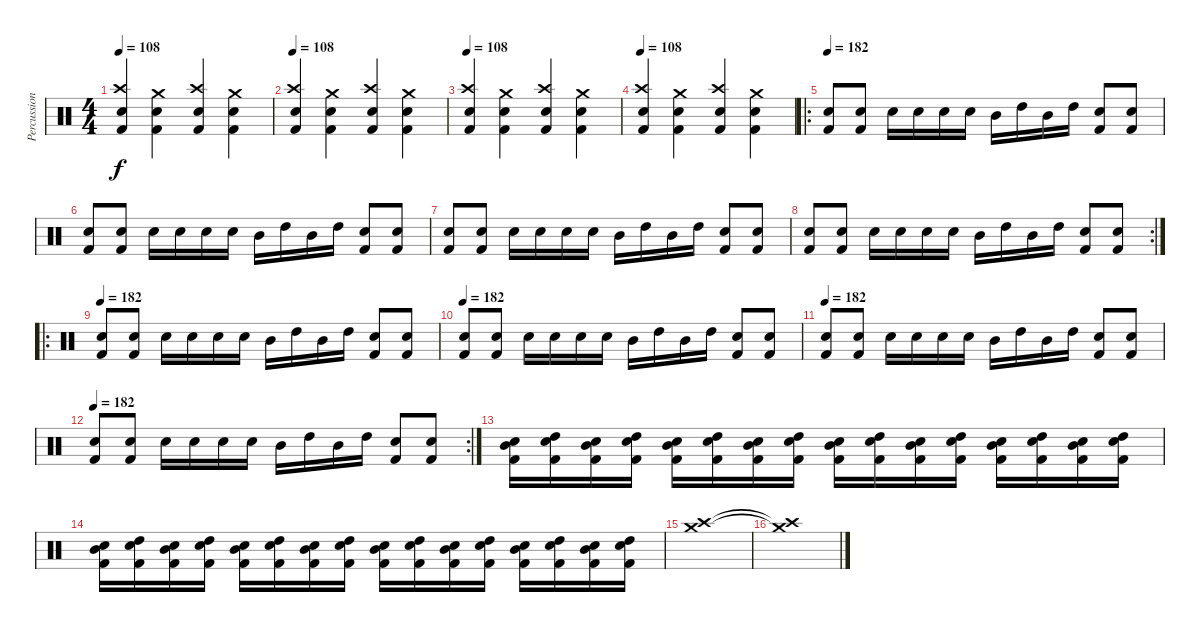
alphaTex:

\track ("Percussion" "Percussion") {instrument percussion}
\staff {score}
\articulation defaults
\ts (4 4)
\tempo 108
\clef neutral
\ks c
("Electric Snare (hit)" "Crash high (hit)" "Kick (hit) 2").4{dy f} ("Electric Snare (hit)" "Crash medium (hit)" "Kick (hit) 2").4 ("Electric Snare (hit)" "Crash high (hit)" "Kick (hit) 2").4 ("Electric Snare (hit)" "Crash medium (hit)" "Kick (hit) 2").4 |
\tempo 108
("Electric Snare (hit)" "Crash high (hit)" "Kick (hit) 2").4 ("Electric Snare (hit)" "Crash medium (hit)" "Kick (hit) 2").4 ("Electric Snare (hit)" "Crash high (hit)" "Kick (hit) 2").4 ("Electric Snare (hit)" "Crash medium (hit)" "Kick (hit) 2").4 |
\tempo 108
("Electric Snare (hit)" "Crash high (hit)" "Kick (hit) 2").4 ("Electric Snare (hit)" "Crash medium (hit)" "Kick (hit) 2").4 ("Electric Snare (hit)" "Crash high (hit)" "Kick (hit) 2").4 ("Electric Snare (hit)" "Crash medium (hit)" "Kick (hit) 2").4 |
\tempo 108
("Electric Snare (hit)" "Crash high (hit)" "Kick (hit) 2").4 ("Electric Snare (hit)" "Crash medium (hit)" "Kick (hit) 2").4 ("Electric Snare (hit)" "Crash high (hit)" "Kick (hit) 2").4 ("Electric Snare (hit)" "Crash medium (hit)" "Kick (hit) 2").4 |
\ro
\tempo 182
("Electric Snare (hit)" "Kick (hit) 2").8 ("Electric Snare (hit)" "Kick (hit) 2").8 "Electric Snare (hit)".16 "Electric Snare (hit)".16 "Electric Snare (hit)".16 "Electric Snare (hit)".16 "Mid Tom (hit)".16 "High Tom (hit)".16 "Mid Tom (hit)".16 "High Tom (hit)".16 ("Electric Snare (hit)" "Kick (hit) 2").8 ("Electric Snare (hit)" "Kick (hit) 2").8 |
("Electric Snare (hit)" "Kick (hit) 2").8 ("Electric Snare (hit)" "Kick (hit) 2").8 "Electric Snare (hit)".16 "Electric Snare (hit)".16 "Electric Snare (hit)".16 "Electric Snare (hit)".16 "Mid Tom (hit)".16 "High Tom (hit)".16 "Mid Tom (hit)".16 "High Tom (hit)".16 ("Electric Snare (hit)" "Kick (hit) 2").8 ("Electric Snare (hit)" "Kick (hit) 2").8 |
("Electric Snare (hit)" "Kick (hit) 2").8 ("Electric Snare (hit)" "Kick (hit) 2").8 "Electric Snare (hit)".16 "Electric Snare (hit)".16 "Electric Snare (hit)".16 "Electric Snare (hit)".16 "Mid Tom (hit)".16 "High Tom (hit)".16 "Mid Tom (hit)".16 "High Tom (hit)".16 ("Electric Snare (hit)" "Kick (hit) 2").8 ("Electric Snare (hit)" "Kick (hit) 2").8 |
\rc 2
("Electric Snare (hit)" "Kick (hit) 2").8 ("Electric Snare (hit)" "Kick (hit) 2").8 "Electric Snare (hit)".16 "Electric Snare (hit)".16 "Electric Snare (hit)".16 "Electric Snare (hit)".16 "Mid Tom (hit)".16 "High Tom (hit)".16 "Mid Tom (hit)".16 "High Tom (hit)".16 ("Electric Snare (hit)" "Kick (hit) 2").8 ("Electric Snare (hit)" "Kick (hit) 2").8 |
\ro
\tempo 182
("Electric Snare (hit)" "Kick (hit) 2").8 ("Electric Snare (hit)" "Kick (hit) 2").8 "Electric Snare (hit)".16 "Electric Snare (hit)".16 "Electric Snare (hit)".16 "Electric Snare (hit)".16 "Mid Tom (hit)".16 "High Tom (hit)".16 "Mid Tom (hit)".16 "High Tom (hit)".16 ("Electric Snare (hit)" "Kick (hit) 2").8 ("Electric Snare (hit)" "Kick (hit) 2").8 |
\tempo 182
("Electric Snare (hit)" "Kick (hit) 2").8 ("Electric Snare (hit)" "Kick (hit) 2").8 "Electric Snare (hit)".16 "Electric Snare (hit)".16 "Electric Snare (hit)".16 "Electric Snare (hit)".16 "Mid Tom (hit)".16 "High Tom (hit)".16 "Mid Tom (hit)".16 "High Tom (hit)".16 ("Electric Snare (hit)" "Kick (hit) 2").8 ("Electric Snare (hit)" "Kick (hit) 2").8 |
\tempo 182
("Electric Snare (hit)" "Kick (hit) 2").8 ("Electric Snare (hit)" "Kick (hit) 2").8 "Electric Snare (hit)".16 "Electric Snare (hit)".16 "Electric Snare (hit)".16 "Electric Snare (hit)".16 "Mid Tom (hit)".16 "High Tom (hit)".16 "Mid Tom (hit)".16 "High Tom (hit)".16 ("Electric Snare (hit)" "Kick (hit) 2").8 ("Electric Snare (hit)" "Kick (hit) 2").8 |
\rc 2
\tempo 182
("Electric Snare (hit)" "Kick (hit) 2").8 ("Electric Snare (hit)" "Kick (hit) 2").8 "Electric Snare (hit)".16 "Electric Snare (hit)".16 "Electric Snare (hit)".16 "Electric Snare (hit)".16 "Mid Tom (hit)".16 "High Tom (hit)".16 "Mid Tom (hit)".16 "High Tom (hit)".16 ("Electric Snare (hit)" "Kick (hit) 2").8 ("Electric Snare (hit)" "Kick (hit) 2").8 |
("Electric Snare (hit)" "Kick (hit) 2" "Mid Tom (hit)").16 ("Electric Snare (hit)" "Kick (hit) 2" "High Tom (hit)").16 ("Electric Snare (hit)" "Kick (hit) 2" "Mid Tom (hit)").16 ("Electric Snare (hit)" "Kick (hit) 2" "High Tom (hit)").16 ("Electric Snare (hit)" "Kick (hit) 2" "Mid Tom (hit)").16 ("Electric Snare (hit)" "Kick (hit) 2" "High Tom (hit)").16 ("Electric Snare (hit)" "Kick (hit) 2" "Mid Tom (hit)").16 ("Electric Snare (hit)" "Kick (hit) 2" "High Tom (hit)").16 ("Electric Snare (hit)" "Kick (hit) 2" "Mid Tom (hit)").16 ("Electric Snare (hit)" "Kick (hit) 2" "High Tom (hit)").16 ("Electric Snare (hit)" "Kick (hit) 2" "Mid Tom (hit)").16 ("Electric Snare (hit)" "Kick (hit) 2" "High Tom (hit)").16 ("Electric Snare (hit)" "Kick (hit) 2" "Mid Tom (hit)").16 ("Electric Snare (hit)" "Kick (hit) 2" "High Tom (hit)").16 ("Electric Snare (hit)" "Kick (hit) 2" "Mid Tom (hit)").16 ("Electric Snare (hit)" "Kick (hit) 2" "High Tom (hit)").16 |
("Electric Snare (hit)" "Kick (hit) 2" "Mid Tom (hit)").16 ("Electric Snare (hit)" "Kick (hit) 2" "High Tom (hit)").16 ("Electric Snare (hit)" "Kick (hit) 2" "Mid Tom (hit)").16 ("Electric Snare (hit)" "Kick (hit) 2" "High Tom (hit)").16 ("Electric Snare (hit)" "Kick (hit) 2" "Mid Tom (hit)").16 ("Electric Snare (hit)" "Kick (hit) 2" "High Tom (hit)").16 ("Electric Snare (hit)" "Kick (hit) 2" "Mid Tom (hit)").16 ("Electric Snare (hit)" "Kick (hit) 2" "High Tom (hit)").16 ("Electric Snare (hit)" "Kick (hit) 2" "Mid Tom (hit)").16 ("Electric Snare (hit)" "Kick (hit) 2" "High Tom (hit)").16 ("Electric Snare (hit)" "Kick (hit) 2" "Mid Tom (hit)").16 ("Electric Snare (hit)" "Kick (hit) 2" "High Tom (hit)").16 ("Electric Snare (hit)" "Kick (hit) 2" "Mid Tom (hit)").16 ("Electric Snare (hit)" "Kick (hit) 2" "High Tom (hit)").16 ("Electric Snare (hit)" "Kick (hit) 2" "Mid Tom (hit)").16 ("Electric Snare (hit)" "Kick (hit) 2" "High Tom (hit)").16 |
("Crash medium (hit)" "Crash high (hit)").1 |
("Crash medium (hit)"{t} "Crash high (hit)"{t}).1
